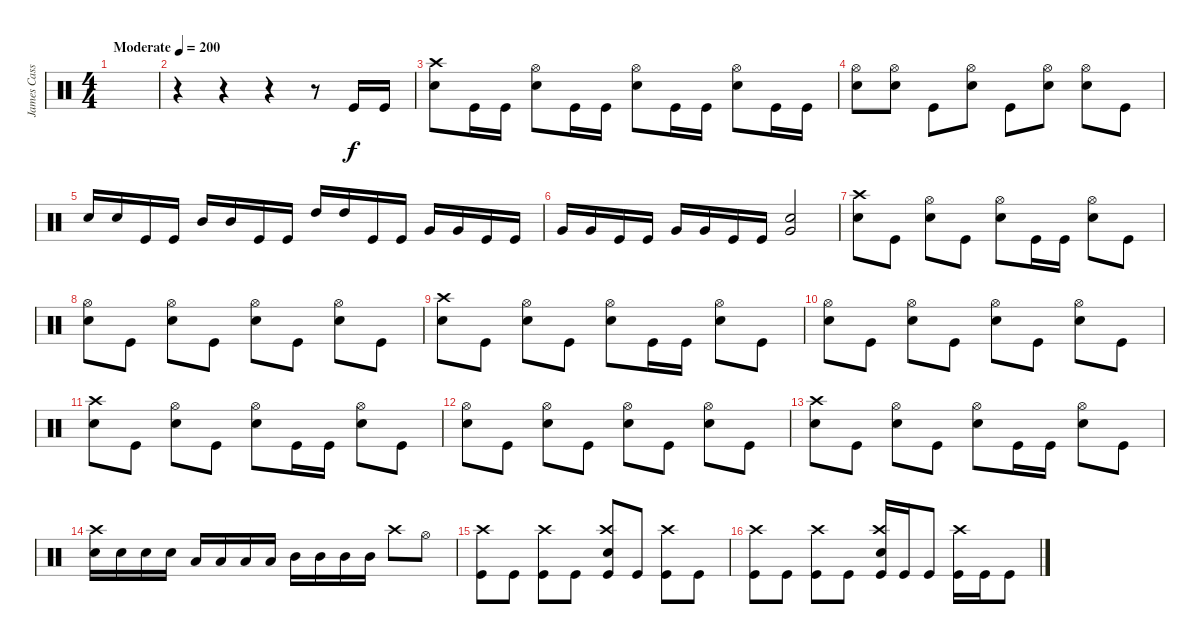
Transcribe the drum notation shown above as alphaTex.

\track ("James Cassells" "James Cass") {instrument percussion}
\staff {score}
\articulation defaults
\ts (4 4)
\tempo (200 "Moderate")
\clef neutral
\ks c
|
r.4 r.4 r.4 r.8 "Kick (hit)".16 "Kick (hit)".16 |
("Crash high (hit)" "Electric Snare (hit)").8 "Kick (hit)".16 "Kick (hit)".16 ("Hi-Hat (open)" "Electric Snare (hit)").8 "Kick (hit)".16 "Kick (hit)".16 ("Hi-Hat (open)" "Electric Snare (hit)").8 "Kick (hit)".16 "Kick (hit)".16 ("Hi-Hat (open)" "Electric Snare (hit)").8 "Kick (hit)".16 "Kick (hit)".16 |
("Hi-Hat (open)" "Electric Snare (hit)").8 ("Hi-Hat (open)" "Electric Snare (hit)").8 "Kick (hit)".8 ("Hi-Hat (open)" "Electric Snare (hit)").8 "Kick (hit)".8 ("Hi-Hat (open)" "Electric Snare (hit)").8 ("Hi-Hat (open)" "Electric Snare (hit)").8 "Kick (hit)".8 |
"Electric Snare (hit)".16 "Electric Snare (hit)".16 "Kick (hit)".16 "Kick (hit)".16 "Mid Tom (hit)".16 "Mid Tom (hit)".16 "Kick (hit)".16 "Kick (hit)".16 "High Tom (hit)".16 "High Tom (hit)".16 "Kick (hit)".16 "Kick (hit)".16 "Very Low Tom (hit)".16 "Very Low Tom (hit)".16 "Kick (hit)".16 "Kick (hit)".16 |
"Very Low Tom (hit)".16 "Very Low Tom (hit)".16 "Kick (hit)".16 "Kick (hit)".16 "Very Low Tom (hit)".16 "Very Low Tom (hit)".16 "Kick (hit)".16 "Kick (hit)".16 ("Very Low Tom (hit)" "Electric Snare (hit)").2 |
("Crash high (hit)" "Electric Snare (hit)").8 "Kick (hit)".8 ("Hi-Hat (open)" "Electric Snare (hit)").8 "Kick (hit)".8 ("Hi-Hat (open)" "Electric Snare (hit)").8 "Kick (hit)".16 "Kick (hit)".16 ("Hi-Hat (open)" "Electric Snare (hit)").8 "Kick (hit)".8 |
("Hi-Hat (open)" "Electric Snare (hit)").8 "Kick (hit)".8 ("Hi-Hat (open)" "Electric Snare (hit)").8 "Kick (hit)".8 ("Hi-Hat (open)" "Electric Snare (hit)").8 "Kick (hit)".8 ("Hi-Hat (open)" "Electric Snare (hit)").8 "Kick (hit)".8 |
("Crash high (hit)" "Electric Snare (hit)").8 "Kick (hit)".8 ("Hi-Hat (open)" "Electric Snare (hit)").8 "Kick (hit)".8 ("Hi-Hat (open)" "Electric Snare (hit)").8 "Kick (hit)".16 "Kick (hit)".16 ("Hi-Hat (open)" "Electric Snare (hit)").8 "Kick (hit)".8 |
("Hi-Hat (open)" "Electric Snare (hit)").8 "Kick (hit)".8 ("Hi-Hat (open)" "Electric Snare (hit)").8 "Kick (hit)".8 ("Hi-Hat (open)" "Electric Snare (hit)").8 "Kick (hit)".8 ("Hi-Hat (open)" "Electric Snare (hit)").8 "Kick (hit)".8 |
("Crash high (hit)" "Electric Snare (hit)").8 "Kick (hit)".8 ("Hi-Hat (open)" "Electric Snare (hit)").8 "Kick (hit)".8 ("Hi-Hat (open)" "Electric Snare (hit)").8 "Kick (hit)".16 "Kick (hit)".16 ("Hi-Hat (open)" "Electric Snare (hit)").8 "Kick (hit)".8 |
("Hi-Hat (open)" "Electric Snare (hit)").8 "Kick (hit)".8 ("Hi-Hat (open)" "Electric Snare (hit)").8 "Kick (hit)".8 ("Hi-Hat (open)" "Electric Snare (hit)").8 "Kick (hit)".8 ("Hi-Hat (open)" "Electric Snare (hit)").8 "Kick (hit)".8 |
("Crash high (hit)" "Electric Snare (hit)").8 "Kick (hit)".8 ("Hi-Hat (open)" "Electric Snare (hit)").8 "Kick (hit)".8 ("Hi-Hat (open)" "Electric Snare (hit)").8 "Kick (hit)".16 "Kick (hit)".16 ("Hi-Hat (open)" "Electric Snare (hit)").8 "Kick (hit)".8 |
("Crash high (hit)" "Electric Snare (hit)").16 "Electric Snare (hit)".16 "Electric Snare (hit)".16 "Electric Snare (hit)".16 "Low Tom (hit)".16 "Low Tom (hit)".16 "Low Tom (hit)".16 "Low Tom (hit)".16 "Mid Tom (hit)".16 "Mid Tom (hit)".16 "Mid Tom (hit)".16 "Mid Tom (hit)".16 "Crash high (hit)".8 "Hi-Hat (open)".8 |
("Crash high (hit)" "Kick (hit)").8 "Kick (hit)".8 ("Crash high (hit)" "Kick (hit)").8 "Kick (hit)".8 ("Crash high (hit)" "Electric Snare (hit)" "Kick (hit)").8 "Kick (hit)".8 ("Crash high (hit)" "Kick (hit)").8 "Kick (hit)".8 |
("Crash high (hit)" "Kick (hit)").8 "Kick (hit)".8 ("Crash high (hit)" "Kick (hit)").8 "Kick (hit)".8 ("Crash high (hit)" "Electric Snare (hit)" "Kick (hit)").16 "Kick (hit)".16 "Kick (hit)".8 ("Crash high (hit)" "Kick (hit)").16 "Kick (hit)".16 "Kick (hit)".8
